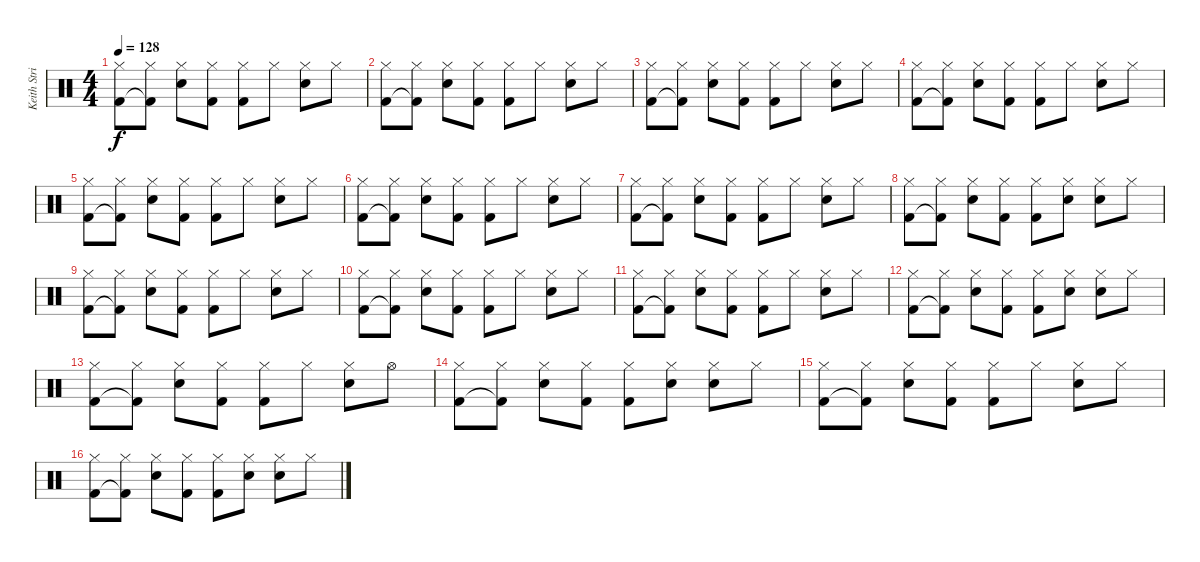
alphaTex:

\track ("Keith Strickland (drums)" "Keith Stri") {instrument percussion}
\staff {score}
\articulation defaults
\ts (4 4)
\tempo 128
\clef neutral
\ks c
("Hi-Hat (closed)" "Kick (hit) 2").8{dy f} ("Hi-Hat (closed)" "Kick (hit) 2"{t}).8 ("Hi-Hat (closed)" "Snare (hit) 2").8 ("Hi-Hat (closed)" "Kick (hit) 2").8 ("Hi-Hat (closed)" "Kick (hit) 2").8 "Hi-Hat (closed)".8 ("Hi-Hat (closed)" "Snare (hit) 2").8 "Hi-Hat (closed)".8 |
("Hi-Hat (closed)" "Kick (hit) 2").8 ("Hi-Hat (closed)" "Kick (hit) 2"{t}).8 ("Hi-Hat (closed)" "Snare (hit) 2").8 ("Hi-Hat (closed)" "Kick (hit) 2").8 ("Hi-Hat (closed)" "Kick (hit) 2").8 "Hi-Hat (closed)".8 ("Hi-Hat (closed)" "Snare (hit) 2").8 "Hi-Hat (closed)".8 |
("Hi-Hat (closed)" "Kick (hit) 2").8 ("Hi-Hat (closed)" "Kick (hit) 2"{t}).8 ("Hi-Hat (closed)" "Snare (hit) 2").8 ("Hi-Hat (closed)" "Kick (hit) 2").8 ("Hi-Hat (closed)" "Kick (hit) 2").8 "Hi-Hat (closed)".8 ("Hi-Hat (closed)" "Snare (hit) 2").8 "Hi-Hat (closed)".8 |
("Hi-Hat (closed)" "Kick (hit) 2").8 ("Hi-Hat (closed)" "Kick (hit) 2"{t}).8 ("Hi-Hat (closed)" "Snare (hit) 2").8 ("Hi-Hat (closed)" "Kick (hit) 2").8 ("Hi-Hat (closed)" "Kick (hit) 2").8 "Hi-Hat (closed)".8 ("Hi-Hat (closed)" "Snare (hit) 2").8 "Hi-Hat (closed)".8 |
("Hi-Hat (closed)" "Kick (hit) 2").8 ("Hi-Hat (closed)" "Kick (hit) 2"{t}).8 ("Hi-Hat (closed)" "Snare (hit) 2").8 ("Hi-Hat (closed)" "Kick (hit) 2").8 ("Hi-Hat (closed)" "Kick (hit) 2").8 "Hi-Hat (closed)".8 ("Hi-Hat (closed)" "Snare (hit) 2").8 "Hi-Hat (closed)".8 |
("Hi-Hat (closed)" "Kick (hit) 2").8 ("Hi-Hat (closed)" "Kick (hit) 2"{t}).8 ("Hi-Hat (closed)" "Snare (hit) 2").8 ("Hi-Hat (closed)" "Kick (hit) 2").8 ("Hi-Hat (closed)" "Kick (hit) 2").8 "Hi-Hat (closed)".8 ("Hi-Hat (closed)" "Snare (hit) 2").8 "Hi-Hat (closed)".8 |
("Hi-Hat (closed)" "Kick (hit) 2").8 ("Hi-Hat (closed)" "Kick (hit) 2"{t}).8 ("Hi-Hat (closed)" "Snare (hit) 2").8 ("Hi-Hat (closed)" "Kick (hit) 2").8 ("Hi-Hat (closed)" "Kick (hit) 2").8 "Hi-Hat (closed)".8 ("Hi-Hat (closed)" "Snare (hit) 2").8 "Hi-Hat (closed)".8 |
("Hi-Hat (closed)" "Kick (hit) 2").8 ("Hi-Hat (closed)" "Kick (hit) 2"{t}).8 ("Hi-Hat (closed)" "Snare (hit) 2").8 ("Hi-Hat (closed)" "Kick (hit) 2").8 ("Hi-Hat (closed)" "Kick (hit) 2").8 ("Hi-Hat (closed)" "Snare (hit) 2").8 ("Hi-Hat (closed)" "Snare (hit) 2").8 "Hi-Hat (closed)".8 |
("Hi-Hat (closed)" "Kick (hit) 2").8 ("Hi-Hat (closed)" "Kick (hit) 2"{t}).8 ("Hi-Hat (closed)" "Snare (hit) 2").8 ("Hi-Hat (closed)" "Kick (hit) 2").8 ("Hi-Hat (closed)" "Kick (hit) 2").8 "Hi-Hat (closed)".8 ("Hi-Hat (closed)" "Snare (hit) 2").8 "Hi-Hat (closed)".8 |
("Hi-Hat (closed)" "Kick (hit) 2").8 ("Hi-Hat (closed)" "Kick (hit) 2"{t}).8 ("Hi-Hat (closed)" "Snare (hit) 2").8 ("Hi-Hat (closed)" "Kick (hit) 2").8 ("Hi-Hat (closed)" "Kick (hit) 2").8 "Hi-Hat (closed)".8 ("Hi-Hat (closed)" "Snare (hit) 2").8 "Hi-Hat (closed)".8 |
("Hi-Hat (closed)" "Kick (hit) 2").8 ("Hi-Hat (closed)" "Kick (hit) 2"{t}).8 ("Hi-Hat (closed)" "Snare (hit) 2").8 ("Hi-Hat (closed)" "Kick (hit) 2").8 ("Hi-Hat (closed)" "Kick (hit) 2").8 "Hi-Hat (closed)".8 ("Hi-Hat (closed)" "Snare (hit) 2").8 "Hi-Hat (closed)".8 |
("Hi-Hat (closed)" "Kick (hit) 2").8 ("Hi-Hat (closed)" "Kick (hit) 2"{t}).8 ("Hi-Hat (closed)" "Snare (hit) 2").8 ("Hi-Hat (closed)" "Kick (hit) 2").8 ("Hi-Hat (closed)" "Kick (hit) 2").8 ("Hi-Hat (closed)" "Snare (hit) 2").8 ("Hi-Hat (closed)" "Snare (hit) 2").8 "Hi-Hat (closed)".8 |
("Hi-Hat (closed)" "Kick (hit) 2").8 ("Hi-Hat (closed)" "Kick (hit) 2"{t}).8 ("Hi-Hat (closed)" "Snare (hit) 2").8 ("Hi-Hat (closed)" "Kick (hit) 2").8 ("Hi-Hat (closed)" "Kick (hit) 2").8 "Hi-Hat (closed)".8 ("Hi-Hat (closed)" "Snare (hit) 2").8 "Hi-Hat (open)".8 |
("Hi-Hat (closed)" "Kick (hit) 2").8 ("Hi-Hat (closed)" "Kick (hit) 2"{t}).8 ("Hi-Hat (closed)" "Snare (hit) 2").8 ("Hi-Hat (closed)" "Kick (hit) 2").8 ("Hi-Hat (closed)" "Kick (hit) 2").8 ("Hi-Hat (closed)" "Snare (hit) 2").8 ("Hi-Hat (closed)" "Snare (hit) 2").8 "Hi-Hat (closed)".8 |
("Hi-Hat (closed)" "Kick (hit) 2").8 ("Hi-Hat (closed)" "Kick (hit) 2"{t}).8 ("Hi-Hat (closed)" "Snare (hit) 2").8 ("Hi-Hat (closed)" "Kick (hit) 2").8 ("Hi-Hat (closed)" "Kick (hit) 2").8 "Hi-Hat (closed)".8 ("Hi-Hat (closed)" "Snare (hit) 2").8 "Hi-Hat (closed)".8 |
("Hi-Hat (closed)" "Kick (hit) 2").8 ("Hi-Hat (closed)" "Kick (hit) 2"{t}).8 ("Hi-Hat (closed)" "Snare (hit) 2").8 ("Hi-Hat (closed)" "Kick (hit) 2").8 ("Hi-Hat (closed)" "Kick (hit) 2").8 ("Hi-Hat (closed)" "Snare (hit) 2").8 ("Hi-Hat (closed)" "Snare (hit) 2").8 "Hi-Hat (closed)".8
